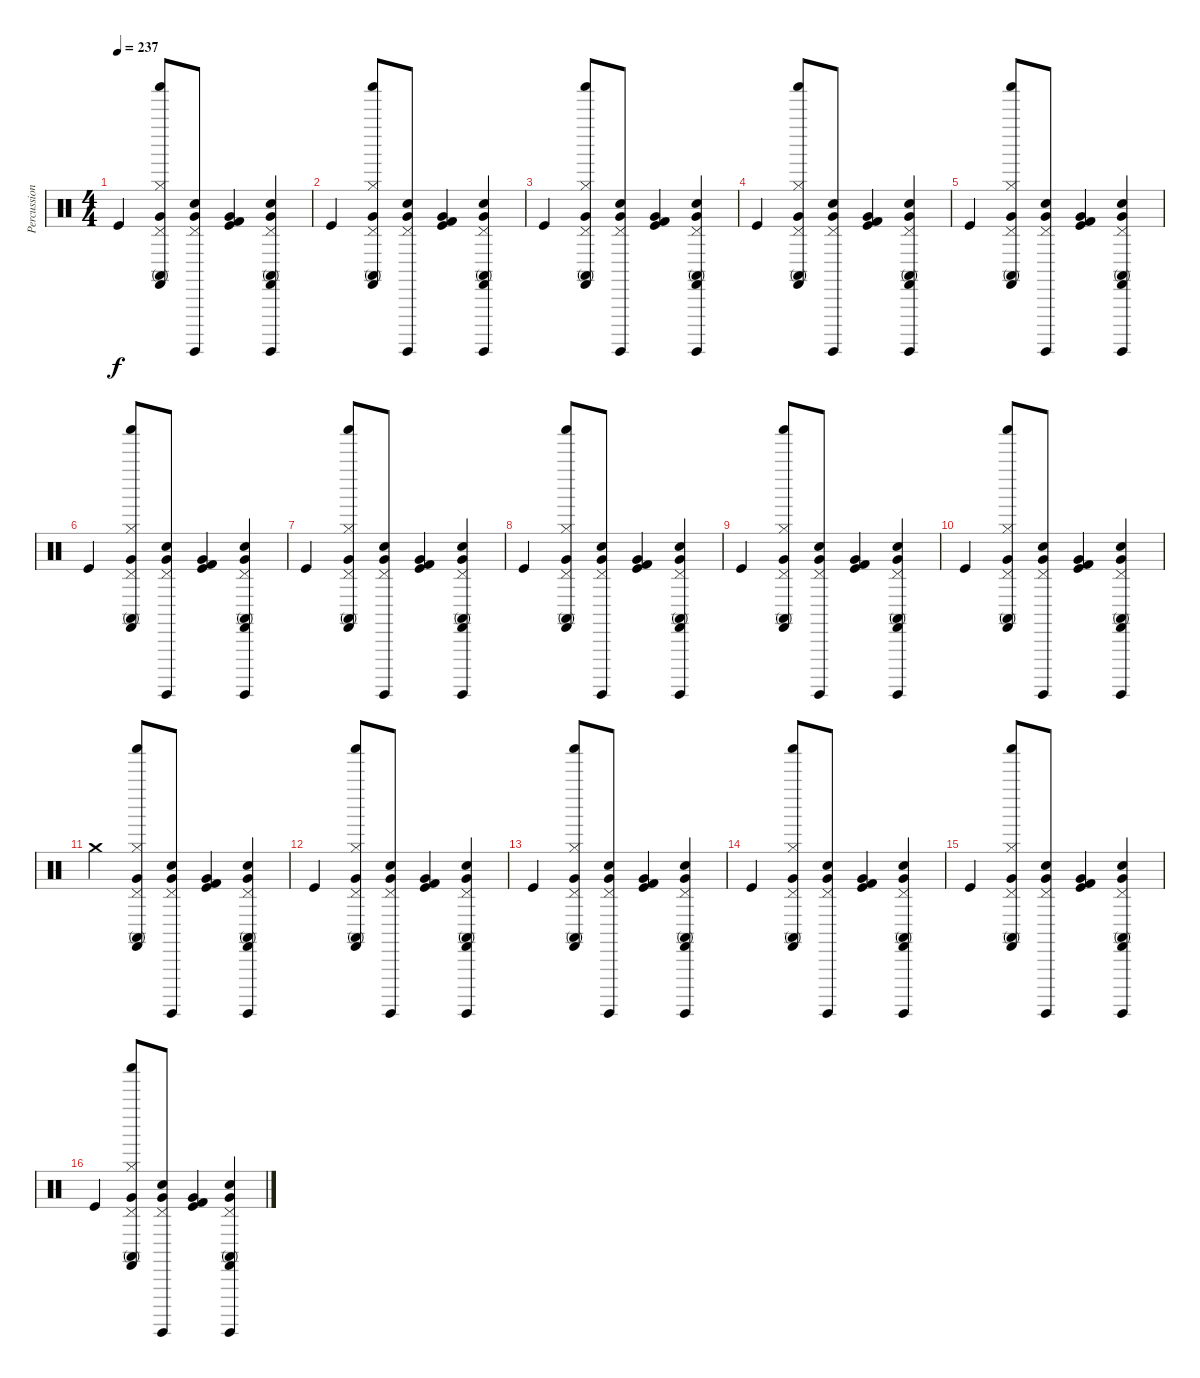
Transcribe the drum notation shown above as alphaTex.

\track ("Percussions" "Percussion") {instrument percussion}
\staff {score}
\articulation defaults
\ts (4 4)
\tempo 237
\clef neutral
\ks c "Kick (hit)".4{dy f}
("Hi-Hat (closed)" "Shaker (hit)" "Pedal Hi-Hat (hit)" "Very Low Tom (hit)" "Conga high (mute)" "Castanets (hit)").8 ("Hand Clap (hit)" "Surdo (hit)" "Pedal Hi-Hat (hit)" "Very Low Tom (hit)").8 ("Kick (hit)" "Kick (hit) 2" "Very Low Tom (hit)").4 ("Hand Clap (hit)" "Surdo (hit)" "Pedal Hi-Hat (hit)" "Very Low Tom (hit)" "Conga high (mute)" "Castanets (hit)").4 |
"Kick (hit)".4 ("Hi-Hat (closed)" "Shaker (hit)" "Pedal Hi-Hat (hit)" "Very Low Tom (hit)" "Conga high (mute)" "Castanets (hit)").8 ("Hand Clap (hit)" "Surdo (hit)" "Pedal Hi-Hat (hit)" "Very Low Tom (hit)").8 ("Kick (hit)" "Kick (hit) 2" "Very Low Tom (hit)").4 ("Hand Clap (hit)" "Surdo (hit)" "Pedal Hi-Hat (hit)" "Very Low Tom (hit)" "Conga high (mute)" "Castanets (hit)").4 |
"Kick (hit)".4 ("Hi-Hat (closed)" "Shaker (hit)" "Pedal Hi-Hat (hit)" "Very Low Tom (hit)" "Conga high (mute)" "Castanets (hit)").8 ("Hand Clap (hit)" "Surdo (hit)" "Pedal Hi-Hat (hit)" "Very Low Tom (hit)").8 ("Kick (hit)" "Kick (hit) 2" "Very Low Tom (hit)").4 ("Hand Clap (hit)" "Surdo (hit)" "Pedal Hi-Hat (hit)" "Very Low Tom (hit)" "Conga high (mute)" "Castanets (hit)").4 |
"Kick (hit)".4 ("Hi-Hat (closed)" "Shaker (hit)" "Pedal Hi-Hat (hit)" "Very Low Tom (hit)" "Conga high (mute)" "Castanets (hit)").8 ("Hand Clap (hit)" "Surdo (hit)" "Pedal Hi-Hat (hit)" "Very Low Tom (hit)").8 ("Kick (hit)" "Kick (hit) 2" "Very Low Tom (hit)").4 ("Hand Clap (hit)" "Surdo (hit)" "Pedal Hi-Hat (hit)" "Very Low Tom (hit)" "Conga high (mute)" "Castanets (hit)").4 |
"Kick (hit)".4 ("Hi-Hat (closed)" "Shaker (hit)" "Pedal Hi-Hat (hit)" "Very Low Tom (hit)" "Conga high (mute)" "Castanets (hit)").8 ("Hand Clap (hit)" "Surdo (hit)" "Pedal Hi-Hat (hit)" "Very Low Tom (hit)").8 ("Kick (hit)" "Kick (hit) 2" "Very Low Tom (hit)").4 ("Hand Clap (hit)" "Surdo (hit)" "Pedal Hi-Hat (hit)" "Very Low Tom (hit)" "Conga high (mute)" "Castanets (hit)").4 |
"Kick (hit)".4 ("Hi-Hat (closed)" "Shaker (hit)" "Pedal Hi-Hat (hit)" "Very Low Tom (hit)" "Conga high (mute)" "Castanets (hit)").8 ("Hand Clap (hit)" "Surdo (hit)" "Pedal Hi-Hat (hit)" "Very Low Tom (hit)").8 ("Kick (hit)" "Kick (hit) 2" "Very Low Tom (hit)").4 ("Hand Clap (hit)" "Surdo (hit)" "Pedal Hi-Hat (hit)" "Very Low Tom (hit)" "Conga high (mute)" "Castanets (hit)").4 |
"Kick (hit)".4 ("Hi-Hat (closed)" "Shaker (hit)" "Pedal Hi-Hat (hit)" "Very Low Tom (hit)" "Conga high (mute)" "Castanets (hit)").8 ("Hand Clap (hit)" "Surdo (hit)" "Pedal Hi-Hat (hit)" "Very Low Tom (hit)").8 ("Kick (hit)" "Kick (hit) 2" "Very Low Tom (hit)").4 ("Hand Clap (hit)" "Surdo (hit)" "Pedal Hi-Hat (hit)" "Very Low Tom (hit)" "Conga high (mute)" "Castanets (hit)").4 |
"Kick (hit)".4 ("Hi-Hat (closed)" "Shaker (hit)" "Pedal Hi-Hat (hit)" "Very Low Tom (hit)" "Conga high (mute)" "Castanets (hit)").8 ("Hand Clap (hit)" "Surdo (hit)" "Pedal Hi-Hat (hit)" "Very Low Tom (hit)").8 ("Kick (hit)" "Kick (hit) 2" "Very Low Tom (hit)").4 ("Hand Clap (hit)" "Surdo (hit)" "Pedal Hi-Hat (hit)" "Very Low Tom (hit)" "Conga high (mute)" "Castanets (hit)").4 |
"Kick (hit)".4 ("Hi-Hat (closed)" "Shaker (hit)" "Pedal Hi-Hat (hit)" "Very Low Tom (hit)" "Conga high (mute)" "Castanets (hit)").8 ("Hand Clap (hit)" "Surdo (hit)" "Pedal Hi-Hat (hit)" "Very Low Tom (hit)").8 ("Kick (hit)" "Kick (hit) 2" "Very Low Tom (hit)").4 ("Hand Clap (hit)" "Surdo (hit)" "Pedal Hi-Hat (hit)" "Very Low Tom (hit)" "Conga high (mute)" "Castanets (hit)").4 |
"Kick (hit)".4 ("Hi-Hat (closed)" "Shaker (hit)" "Pedal Hi-Hat (hit)" "Very Low Tom (hit)" "Conga high (mute)" "Castanets (hit)").8 ("Hand Clap (hit)" "Surdo (hit)" "Pedal Hi-Hat (hit)" "Very Low Tom (hit)").8 ("Kick (hit)" "Kick (hit) 2" "Very Low Tom (hit)").4 ("Hand Clap (hit)" "Surdo (hit)" "Pedal Hi-Hat (hit)" "Very Low Tom (hit)" "Conga high (mute)" "Castanets (hit)").4 |
"Crash medium (hit)".4 ("Hi-Hat (closed)" "Shaker (hit)" "Pedal Hi-Hat (hit)" "Very Low Tom (hit)" "Conga high (mute)" "Castanets (hit)").8 ("Hand Clap (hit)" "Surdo (hit)" "Pedal Hi-Hat (hit)" "Very Low Tom (hit)").8 ("Kick (hit)" "Kick (hit) 2" "Very Low Tom (hit)").4 ("Hand Clap (hit)" "Surdo (hit)" "Pedal Hi-Hat (hit)" "Very Low Tom (hit)" "Conga high (mute)" "Castanets (hit)").4 |
"Kick (hit)".4 ("Hi-Hat (closed)" "Shaker (hit)" "Pedal Hi-Hat (hit)" "Very Low Tom (hit)" "Conga high (mute)" "Castanets (hit)").8 ("Hand Clap (hit)" "Surdo (hit)" "Pedal Hi-Hat (hit)" "Very Low Tom (hit)").8 ("Kick (hit)" "Kick (hit) 2" "Very Low Tom (hit)").4 ("Hand Clap (hit)" "Surdo (hit)" "Pedal Hi-Hat (hit)" "Very Low Tom (hit)" "Conga high (mute)" "Castanets (hit)").4 |
"Kick (hit)".4 ("Hi-Hat (closed)" "Shaker (hit)" "Pedal Hi-Hat (hit)" "Very Low Tom (hit)" "Conga high (mute)" "Castanets (hit)").8 ("Hand Clap (hit)" "Surdo (hit)" "Pedal Hi-Hat (hit)" "Very Low Tom (hit)").8 ("Kick (hit)" "Kick (hit) 2" "Very Low Tom (hit)").4 ("Hand Clap (hit)" "Surdo (hit)" "Pedal Hi-Hat (hit)" "Very Low Tom (hit)" "Conga high (mute)" "Castanets (hit)").4 |
"Kick (hit)".4 ("Hi-Hat (closed)" "Shaker (hit)" "Pedal Hi-Hat (hit)" "Very Low Tom (hit)" "Conga high (mute)" "Castanets (hit)").8 ("Hand Clap (hit)" "Surdo (hit)" "Pedal Hi-Hat (hit)" "Very Low Tom (hit)").8 ("Kick (hit)" "Kick (hit) 2" "Very Low Tom (hit)").4 ("Hand Clap (hit)" "Surdo (hit)" "Pedal Hi-Hat (hit)" "Very Low Tom (hit)" "Conga high (mute)" "Castanets (hit)").4 |
"Kick (hit)".4 ("Hi-Hat (closed)" "Shaker (hit)" "Pedal Hi-Hat (hit)" "Very Low Tom (hit)" "Conga high (mute)" "Castanets (hit)").8 ("Hand Clap (hit)" "Surdo (hit)" "Pedal Hi-Hat (hit)" "Very Low Tom (hit)").8 ("Kick (hit)" "Kick (hit) 2" "Very Low Tom (hit)").4 ("Hand Clap (hit)" "Surdo (hit)" "Pedal Hi-Hat (hit)" "Very Low Tom (hit)" "Conga high (mute)" "Castanets (hit)").4 |
"Kick (hit)".4 ("Hi-Hat (closed)" "Shaker (hit)" "Pedal Hi-Hat (hit)" "Very Low Tom (hit)" "Conga high (mute)" "Castanets (hit)").8 ("Hand Clap (hit)" "Surdo (hit)" "Pedal Hi-Hat (hit)" "Very Low Tom (hit)").8 ("Kick (hit)" "Kick (hit) 2" "Very Low Tom (hit)").4 ("Hand Clap (hit)" "Surdo (hit)" "Pedal Hi-Hat (hit)" "Very Low Tom (hit)" "Conga high (mute)" "Castanets (hit)").4
